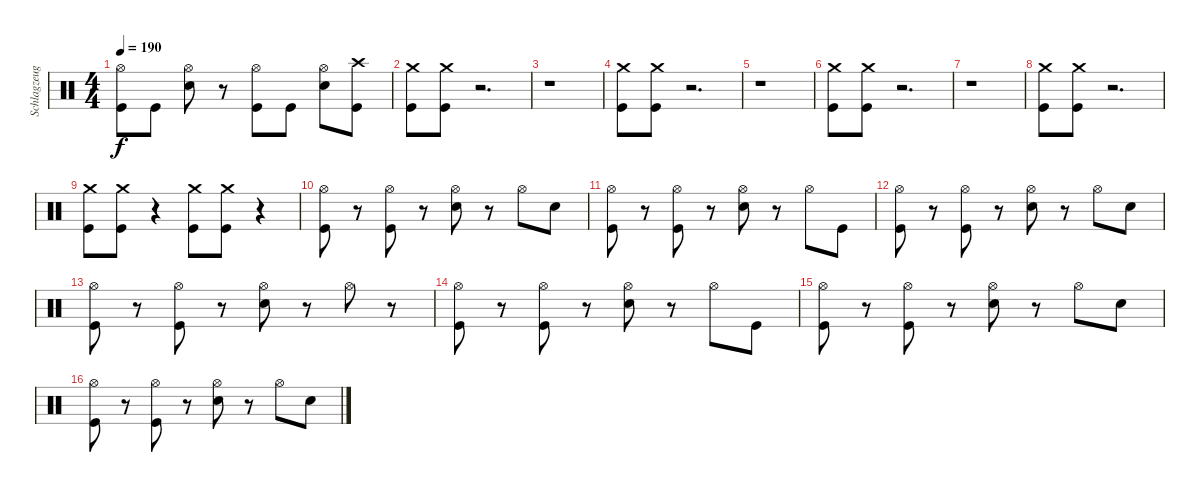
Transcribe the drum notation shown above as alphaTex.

\track ("Schlagzeug" "Schlagzeug") {instrument percussion}
\staff {score}
\articulation defaults
\ts (4 4)
\tempo 190
\clef neutral
\ks c
("Kick (hit)" "Hi-Hat (open)").8{dy f} "Kick (hit)".8 ("Electric Snare (hit)" "Hi-Hat (open)").8 r.8 ("Kick (hit)" "Hi-Hat (open)").8 "Kick (hit)".8 ("Electric Snare (hit)" "Hi-Hat (open)").8 ("Kick (hit)" "Crash high (hit)").8 |
("Crash medium (hit)" "Kick (hit)").8 ("Crash medium (hit)" "Kick (hit)").8 r.2{d} |
r.1 |
("Crash medium (hit)" "Kick (hit)").8 ("Crash medium (hit)" "Kick (hit)").8 r.2{d} |
r.1 |
("Crash medium (hit)" "Kick (hit)").8 ("Crash medium (hit)" "Kick (hit)").8 r.2{d} |
r.1 |
("Crash medium (hit)" "Kick (hit)").8 ("Crash medium (hit)" "Kick (hit)").8 r.2{d} |
("Crash medium (hit)" "Kick (hit)").8 ("Crash medium (hit)" "Kick (hit)").8 r.4 ("Crash medium (hit)" "Kick (hit)").8 ("Crash medium (hit)" "Kick (hit)").8 r.4 |
("Kick (hit)" "Hi-Hat (open)").8 r.8 ("Kick (hit)" "Hi-Hat (open)").8 r.8 ("Electric Snare (hit)" "Hi-Hat (open)").8 r.8 "Hi-Hat (open)".8 "Electric Snare (hit)".8 |
("Kick (hit)" "Hi-Hat (open)").8 r.8 ("Kick (hit)" "Hi-Hat (open)").8 r.8 ("Electric Snare (hit)" "Hi-Hat (open)").8 r.8 "Hi-Hat (open)".8 "Kick (hit)".8 |
("Kick (hit)" "Hi-Hat (open)").8 r.8 ("Kick (hit)" "Hi-Hat (open)").8 r.8 ("Electric Snare (hit)" "Hi-Hat (open)").8 r.8 "Hi-Hat (open)".8 "Electric Snare (hit)".8 |
("Kick (hit)" "Hi-Hat (open)").8 r.8 ("Kick (hit)" "Hi-Hat (open)").8 r.8 ("Electric Snare (hit)" "Hi-Hat (open)").8 r.8 "Hi-Hat (open)".8 r.8 |
("Kick (hit)" "Hi-Hat (open)").8 r.8 ("Kick (hit)" "Hi-Hat (open)").8 r.8 ("Electric Snare (hit)" "Hi-Hat (open)").8 r.8 "Hi-Hat (open)".8 "Kick (hit)".8 |
("Kick (hit)" "Hi-Hat (open)").8 r.8 ("Kick (hit)" "Hi-Hat (open)").8 r.8 ("Electric Snare (hit)" "Hi-Hat (open)").8 r.8 "Hi-Hat (open)".8 "Electric Snare (hit)".8 |
("Kick (hit)" "Hi-Hat (open)").8 r.8 ("Kick (hit)" "Hi-Hat (open)").8 r.8 ("Electric Snare (hit)" "Hi-Hat (open)").8 r.8 "Hi-Hat (open)".8 "Electric Snare (hit)".8
